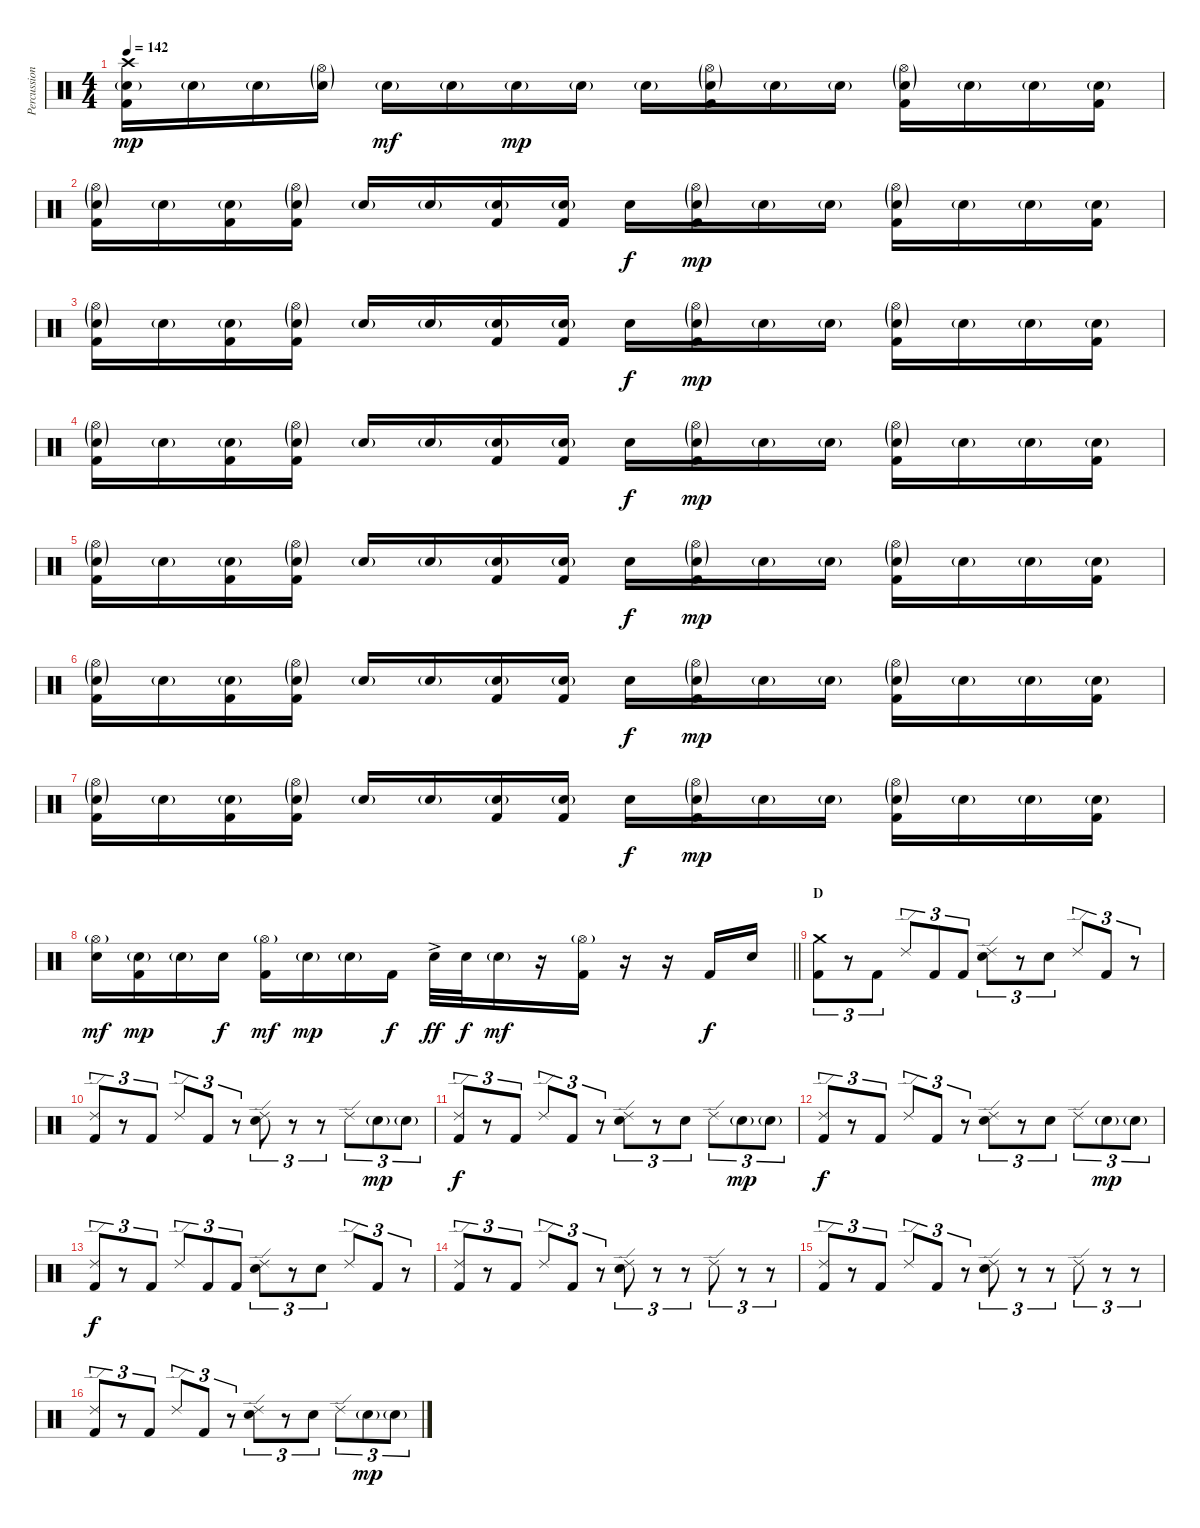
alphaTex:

\track ("Percussion" "Percussion") {instrument percussion}
\staff {score}
\articulation defaults
\ts (4 4)
\tempo 142
\clef neutral
\ks c
("Crash high (hit)" "Electric Snare (hit)"{g} "Kick (hit) 2").16{dy mp} "Electric Snare (hit)"{g}.16 "Electric Snare (hit)"{g}.16 ("Hi-Hat (open)"{g} "Electric Snare (hit)"{g}).16 "Electric Snare (hit)"{g}.16{dy mf} "Electric Snare (hit)"{g}.16 "Electric Snare (hit)"{g}.16{dy mp} "Electric Snare (hit)"{g}.16 "Electric Snare (hit)"{g}.16 ("Hi-Hat (open)"{g} "Electric Snare (hit)"{g} "Kick (hit) 2").16 "Electric Snare (hit)"{g}.16 "Electric Snare (hit)"{g}.16 ("Hi-Hat (open)"{g} "Electric Snare (hit)"{g} "Kick (hit) 2").16 "Electric Snare (hit)"{g}.16 "Electric Snare (hit)"{g}.16 ("Electric Snare (hit)"{g} "Kick (hit) 2").16 |
("Hi-Hat (open)"{g} "Electric Snare (hit)"{g} "Kick (hit) 2").16 "Electric Snare (hit)"{g}.16 ("Electric Snare (hit)"{g} "Kick (hit) 2").16 ("Hi-Hat (open)"{g} "Electric Snare (hit)"{g} "Kick (hit) 2").16 "Electric Snare (hit)"{g}.16 "Electric Snare (hit)"{g}.16 ("Electric Snare (hit)"{g} "Kick (hit) 2").16 ("Electric Snare (hit)"{g} "Kick (hit) 2").16 "Electric Snare (hit)".16{dy f} ("Hi-Hat (open)"{g} "Electric Snare (hit)"{g} "Kick (hit) 2").16{dy mp} "Electric Snare (hit)"{g}.16 "Electric Snare (hit)"{g}.16 ("Hi-Hat (open)"{g} "Electric Snare (hit)"{g} "Kick (hit) 2").16 "Electric Snare (hit)"{g}.16 "Electric Snare (hit)"{g}.16 ("Electric Snare (hit)"{g} "Kick (hit) 2").16 |
("Hi-Hat (open)"{g} "Electric Snare (hit)"{g} "Kick (hit) 2").16 "Electric Snare (hit)"{g}.16 ("Electric Snare (hit)"{g} "Kick (hit) 2").16 ("Hi-Hat (open)"{g} "Electric Snare (hit)"{g} "Kick (hit) 2").16 "Electric Snare (hit)"{g}.16 "Electric Snare (hit)"{g}.16 ("Electric Snare (hit)"{g} "Kick (hit) 2").16 ("Electric Snare (hit)"{g} "Kick (hit) 2").16 "Electric Snare (hit)".16{dy f} ("Hi-Hat (open)"{g} "Electric Snare (hit)"{g} "Kick (hit) 2").16{dy mp} "Electric Snare (hit)"{g}.16 "Electric Snare (hit)"{g}.16 ("Hi-Hat (open)"{g} "Electric Snare (hit)"{g} "Kick (hit) 2").16 "Electric Snare (hit)"{g}.16 "Electric Snare (hit)"{g}.16 ("Electric Snare (hit)"{g} "Kick (hit) 2").16 |
("Hi-Hat (open)"{g} "Electric Snare (hit)"{g} "Kick (hit) 2").16 "Electric Snare (hit)"{g}.16 ("Electric Snare (hit)"{g} "Kick (hit) 2").16 ("Hi-Hat (open)"{g} "Electric Snare (hit)"{g} "Kick (hit) 2").16 "Electric Snare (hit)"{g}.16 "Electric Snare (hit)"{g}.16 ("Electric Snare (hit)"{g} "Kick (hit) 2").16 ("Electric Snare (hit)"{g} "Kick (hit) 2").16 "Electric Snare (hit)".16{dy f} ("Hi-Hat (open)"{g} "Electric Snare (hit)"{g} "Kick (hit) 2").16{dy mp} "Electric Snare (hit)"{g}.16 "Electric Snare (hit)"{g}.16 ("Hi-Hat (open)"{g} "Electric Snare (hit)"{g} "Kick (hit) 2").16 "Electric Snare (hit)"{g}.16 "Electric Snare (hit)"{g}.16 ("Electric Snare (hit)"{g} "Kick (hit) 2").16 |
("Hi-Hat (open)"{g} "Electric Snare (hit)"{g} "Kick (hit) 2").16 "Electric Snare (hit)"{g}.16 ("Electric Snare (hit)"{g} "Kick (hit) 2").16 ("Hi-Hat (open)"{g} "Electric Snare (hit)"{g} "Kick (hit) 2").16 "Electric Snare (hit)"{g}.16 "Electric Snare (hit)"{g}.16 ("Electric Snare (hit)"{g} "Kick (hit) 2").16 ("Electric Snare (hit)"{g} "Kick (hit) 2").16 "Electric Snare (hit)".16{dy f} ("Hi-Hat (open)"{g} "Electric Snare (hit)"{g} "Kick (hit) 2").16{dy mp} "Electric Snare (hit)"{g}.16 "Electric Snare (hit)"{g}.16 ("Hi-Hat (open)"{g} "Electric Snare (hit)"{g} "Kick (hit) 2").16 "Electric Snare (hit)"{g}.16 "Electric Snare (hit)"{g}.16 ("Electric Snare (hit)"{g} "Kick (hit) 2").16 |
("Hi-Hat (open)"{g} "Electric Snare (hit)"{g} "Kick (hit) 2").16 "Electric Snare (hit)"{g}.16 ("Electric Snare (hit)"{g} "Kick (hit) 2").16 ("Hi-Hat (open)"{g} "Electric Snare (hit)"{g} "Kick (hit) 2").16 "Electric Snare (hit)"{g}.16 "Electric Snare (hit)"{g}.16 ("Electric Snare (hit)"{g} "Kick (hit) 2").16 ("Electric Snare (hit)"{g} "Kick (hit) 2").16 "Electric Snare (hit)".16{dy f} ("Hi-Hat (open)"{g} "Electric Snare (hit)"{g} "Kick (hit) 2").16{dy mp} "Electric Snare (hit)"{g}.16 "Electric Snare (hit)"{g}.16 ("Hi-Hat (open)"{g} "Electric Snare (hit)"{g} "Kick (hit) 2").16 "Electric Snare (hit)"{g}.16 "Electric Snare (hit)"{g}.16 ("Electric Snare (hit)"{g} "Kick (hit) 2").16 |
("Hi-Hat (open)"{g} "Electric Snare (hit)"{g} "Kick (hit) 2").16 "Electric Snare (hit)"{g}.16 ("Electric Snare (hit)"{g} "Kick (hit) 2").16 ("Hi-Hat (open)"{g} "Electric Snare (hit)"{g} "Kick (hit) 2").16 "Electric Snare (hit)"{g}.16 "Electric Snare (hit)"{g}.16 ("Electric Snare (hit)"{g} "Kick (hit) 2").16 ("Electric Snare (hit)"{g} "Kick (hit) 2").16 "Electric Snare (hit)".16{dy f} ("Hi-Hat (open)"{g} "Electric Snare (hit)"{g} "Kick (hit) 2").16{dy mp} "Electric Snare (hit)"{g}.16 "Electric Snare (hit)"{g}.16 ("Hi-Hat (open)"{g} "Electric Snare (hit)"{g} "Kick (hit) 2").16 "Electric Snare (hit)"{g}.16 "Electric Snare (hit)"{g}.16 ("Electric Snare (hit)"{g} "Kick (hit) 2").16 |
\barLineRight lightlight
("Hi-Hat (open)"{g} "Electric Snare (hit)").16{dy mf} ("Electric Snare (hit)"{g} "Kick (hit) 2").16{dy mp} "Electric Snare (hit)"{g}.16 "Electric Snare (hit)".16{dy f} ("Hi-Hat (open)"{g} "Kick (hit) 2").16{dy mf} "Electric Snare (hit)"{g}.16{dy mp} "Electric Snare (hit)"{g}.16 "Kick (hit) 2".16{dy f} "Electric Snare (hit)"{ac}.32{dy ff} "Electric Snare (hit)".32{dy f} "Electric Snare (hit)"{g}.16{dy mf} r.16 ("Hi-Hat (open)"{g} "Kick (hit) 2").16 r.16 r.16 "Kick (hit) 2".16{dy f} "Electric Snare (hit)".16 |
\section ("" "D")
("Crash medium (hit)" "Kick (hit) 2").8{tu (3 2)} r.8{tu (3 2)} "Kick (hit) 2".8{tu (3 2)} "Ride (edge) 2".8{tu (3 2)} "Kick (hit) 2".8{tu (3 2)} "Kick (hit) 2".8{tu (3 2)} ("Ride (edge) 2" "Electric Snare (hit)").8{tu (3 2)} r.8{tu (3 2)} "Electric Snare (hit)".8{tu (3 2)} "Ride (edge) 2".8{tu (3 2)} "Kick (hit) 2".8{tu (3 2)} r.8{tu (3 2)} |
("Ride (edge) 2" "Kick (hit) 2").8{tu (3 2)} r.8{tu (3 2)} "Kick (hit) 2".8{tu (3 2)} "Ride (edge) 2".8{tu (3 2)} "Kick (hit) 2".8{tu (3 2)} r.8{tu (3 2)} ("Ride (edge) 2" "Electric Snare (hit)").8{tu (3 2)} r.8{tu (3 2)} r.8{tu (3 2)} "Ride (edge) 2".8{tu (3 2)} "Electric Snare (hit)"{g}.8{tu (3 2) dy mp} "Electric Snare (hit)"{g}.8{tu (3 2)} |
("Ride (edge) 2" "Kick (hit) 2").8{tu (3 2) dy f} r.8{tu (3 2)} "Kick (hit) 2".8{tu (3 2)} "Ride (edge) 2".8{tu (3 2)} "Kick (hit) 2".8{tu (3 2)} r.8{tu (3 2)} ("Ride (edge) 2" "Electric Snare (hit)").8{tu (3 2)} r.8{tu (3 2)} "Electric Snare (hit)".8{tu (3 2)} "Ride (edge) 2".8{tu (3 2)} "Electric Snare (hit)"{g}.8{tu (3 2) dy mp} "Electric Snare (hit)"{g}.8{tu (3 2)} |
("Ride (edge) 2" "Kick (hit) 2").8{tu (3 2) dy f} r.8{tu (3 2)} "Kick (hit) 2".8{tu (3 2)} "Ride (edge) 2".8{tu (3 2)} "Kick (hit) 2".8{tu (3 2)} r.8{tu (3 2)} ("Ride (edge) 2" "Electric Snare (hit)").8{tu (3 2)} r.8{tu (3 2)} "Electric Snare (hit)".8{tu (3 2)} "Ride (edge) 2".8{tu (3 2)} "Electric Snare (hit)"{g}.8{tu (3 2) dy mp} "Electric Snare (hit)"{g}.8{tu (3 2)} |
("Ride (edge) 2" "Kick (hit) 2").8{tu (3 2) dy f} r.8{tu (3 2)} "Kick (hit) 2".8{tu (3 2)} "Ride (edge) 2".8{tu (3 2)} "Kick (hit) 2".8{tu (3 2)} "Kick (hit) 2".8{tu (3 2)} ("Ride (edge) 2" "Electric Snare (hit)").8{tu (3 2)} r.8{tu (3 2)} "Electric Snare (hit)".8{tu (3 2)} "Ride (edge) 2".8{tu (3 2)} "Kick (hit) 2".8{tu (3 2)} r.8{tu (3 2)} |
("Ride (edge) 2" "Kick (hit) 2").8{tu (3 2)} r.8{tu (3 2)} "Kick (hit) 2".8{tu (3 2)} "Ride (edge) 2".8{tu (3 2)} "Kick (hit) 2".8{tu (3 2)} r.8{tu (3 2)} ("Ride (edge) 2" "Electric Snare (hit)").8{tu (3 2)} r.8{tu (3 2)} r.8{tu (3 2)} "Ride (edge) 2".8{tu (3 2)} r.8{tu (3 2)} r.8{tu (3 2)} |
("Ride (edge) 2" "Kick (hit) 2").8{tu (3 2)} r.8{tu (3 2)} "Kick (hit) 2".8{tu (3 2)} "Ride (edge) 2".8{tu (3 2)} "Kick (hit) 2".8{tu (3 2)} r.8{tu (3 2)} ("Ride (edge) 2" "Electric Snare (hit)").8{tu (3 2)} r.8{tu (3 2)} r.8{tu (3 2)} "Ride (edge) 2".8{tu (3 2)} r.8{tu (3 2)} r.8{tu (3 2)} |
("Ride (edge) 2" "Kick (hit) 2").8{tu (3 2)} r.8{tu (3 2)} "Kick (hit) 2".8{tu (3 2)} "Ride (edge) 2".8{tu (3 2)} "Kick (hit) 2".8{tu (3 2)} r.8{tu (3 2)} ("Ride (edge) 2" "Electric Snare (hit)").8{tu (3 2)} r.8{tu (3 2)} "Electric Snare (hit)".8{tu (3 2)} "Ride (edge) 2".8{tu (3 2)} "Electric Snare (hit)"{g}.8{tu (3 2) dy mp} "Electric Snare (hit)"{g}.8{tu (3 2)}
